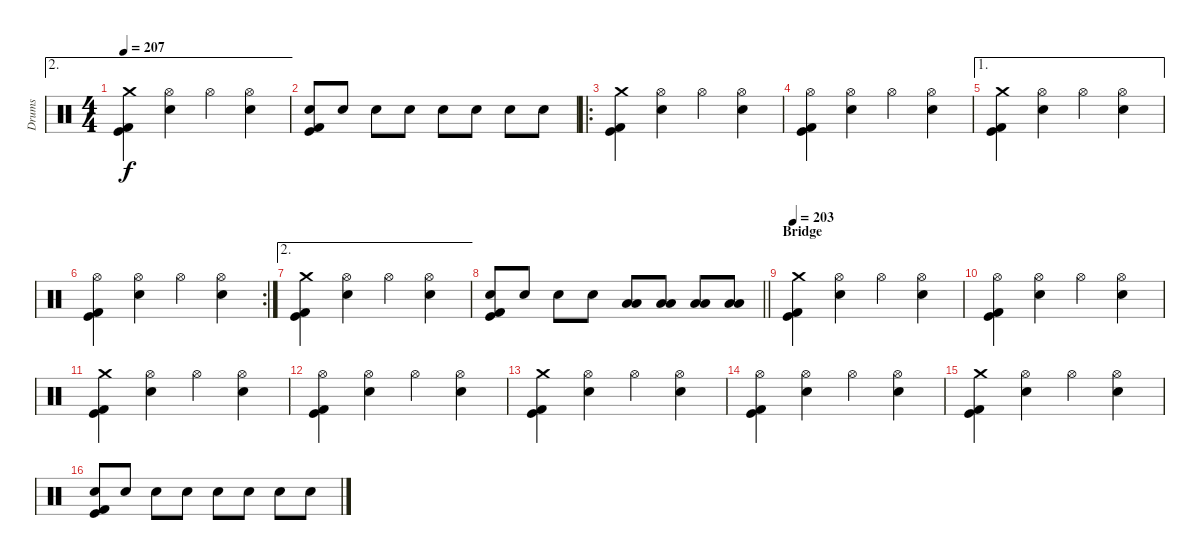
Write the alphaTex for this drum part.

\track ("Drums" "Drums") {instrument percussion}
\staff {score}
\articulation defaults
\ae 2
\ts (4 4)
\tempo 207
\clef neutral
\ks c
("Crash medium (hit)" "Kick (hit)" "Kick (hit) 2").4{dy f} ("Hi-Hat (open)" "Electric Snare (hit)").4 "Hi-Hat (open)".4 ("Hi-Hat (open)" "Electric Snare (hit)").4 |
("Electric Snare (hit)" "Kick (hit)" "Kick (hit) 2").8 "Electric Snare (hit)".8 "Electric Snare (hit)".8 "Electric Snare (hit)".8 "Electric Snare (hit)".8 "Electric Snare (hit)".8 "Electric Snare (hit)".8 "Electric Snare (hit)".8 |
\ro
("Crash medium (hit)" "Kick (hit)" "Kick (hit) 2").4 ("Hi-Hat (open)" "Electric Snare (hit)").4 "Hi-Hat (open)".4 ("Hi-Hat (open)" "Electric Snare (hit)").4 |
("Hi-Hat (open)" "Kick (hit)" "Kick (hit) 2").4 ("Hi-Hat (open)" "Electric Snare (hit)").4 "Hi-Hat (open)".4 ("Hi-Hat (open)" "Electric Snare (hit)").4 |
\ae 1
("Crash medium (hit)" "Kick (hit)" "Kick (hit) 2").4 ("Hi-Hat (open)" "Electric Snare (hit)").4 "Hi-Hat (open)".4 ("Hi-Hat (open)" "Electric Snare (hit)").4 |
\rc 2
("Hi-Hat (open)" "Kick (hit)" "Kick (hit) 2").4 ("Hi-Hat (open)" "Electric Snare (hit)").4 "Hi-Hat (open)".4 ("Hi-Hat (open)" "Electric Snare (hit)").4 |
\ae 2
("Crash medium (hit)" "Kick (hit)" "Kick (hit) 2").4 ("Hi-Hat (open)" "Electric Snare (hit)").4 "Hi-Hat (open)".4 ("Hi-Hat (open)" "Electric Snare (hit)").4 |
\barLineRight lightlight
("Electric Snare (hit)" "Kick (hit)" "Kick (hit) 2").8 "Electric Snare (hit)".8 "Electric Snare (hit)".8 "Electric Snare (hit)".8 ("Low Floor Tom (hit)" "Low Tom (hit)").8 ("Low Floor Tom (hit)" "Low Tom (hit)").8 ("Low Floor Tom (hit)" "Low Tom (hit)").8 ("Low Floor Tom (hit)" "Low Tom (hit)").8 |
\section ("" "Bridge")
\tempo 203
("Crash medium (hit)" "Kick (hit)" "Kick (hit) 2").4 ("Hi-Hat (open)" "Electric Snare (hit)").4 "Hi-Hat (open)".4 ("Hi-Hat (open)" "Electric Snare (hit)").4 |
("Hi-Hat (open)" "Kick (hit)" "Kick (hit) 2").4 ("Hi-Hat (open)" "Electric Snare (hit)").4 "Hi-Hat (open)".4 ("Hi-Hat (open)" "Electric Snare (hit)").4 |
("Crash medium (hit)" "Kick (hit)" "Kick (hit) 2").4 ("Hi-Hat (open)" "Electric Snare (hit)").4 "Hi-Hat (open)".4 ("Hi-Hat (open)" "Electric Snare (hit)").4 |
("Hi-Hat (open)" "Kick (hit)" "Kick (hit) 2").4 ("Hi-Hat (open)" "Electric Snare (hit)").4 "Hi-Hat (open)".4 ("Hi-Hat (open)" "Electric Snare (hit)").4 |
("Crash medium (hit)" "Kick (hit)" "Kick (hit) 2").4 ("Hi-Hat (open)" "Electric Snare (hit)").4 "Hi-Hat (open)".4 ("Hi-Hat (open)" "Electric Snare (hit)").4 |
("Hi-Hat (open)" "Kick (hit)" "Kick (hit) 2").4 ("Hi-Hat (open)" "Electric Snare (hit)").4 "Hi-Hat (open)".4 ("Hi-Hat (open)" "Electric Snare (hit)").4 |
("Crash medium (hit)" "Kick (hit)" "Kick (hit) 2").4 ("Hi-Hat (open)" "Electric Snare (hit)").4 "Hi-Hat (open)".4 ("Hi-Hat (open)" "Electric Snare (hit)").4 |
("Electric Snare (hit)" "Kick (hit)" "Kick (hit) 2").8 "Electric Snare (hit)".8 "Electric Snare (hit)".8 "Electric Snare (hit)".8 "Electric Snare (hit)".8 "Electric Snare (hit)".8 "Electric Snare (hit)".8 "Electric Snare (hit)".8
